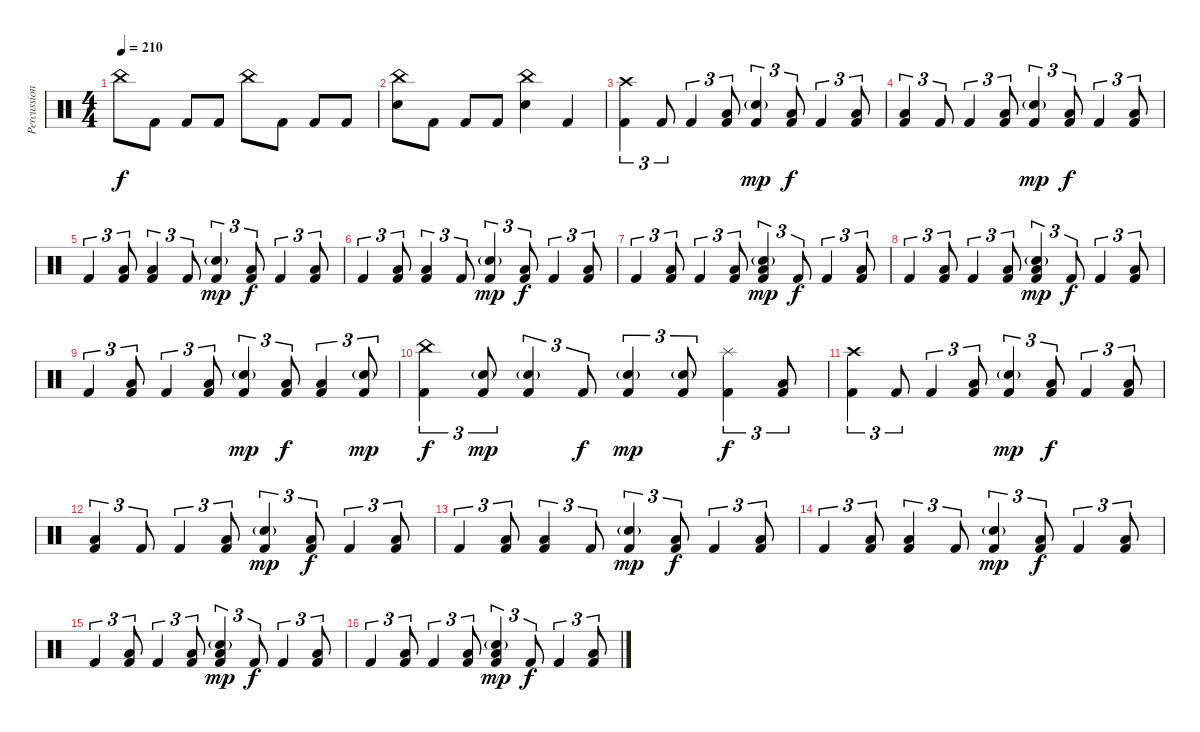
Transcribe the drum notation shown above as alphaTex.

\track ("Percussion" "Percussion") {instrument percussion}
\staff {score}
\articulation defaults
\ts (4 4)
\tempo 210
\clef neutral
\ks c "China (hit)".8{dy f} "Kick (hit) 2".8 "Kick (hit) 2".8 "Kick (hit) 2".8 "China (hit)".8 "Kick (hit) 2".8 "Kick (hit) 2".8 "Kick (hit) 2".8
|
("China (hit)" "Electric Snare (hit)").8 "Kick (hit) 2".8 "Kick (hit) 2".8 "Kick (hit) 2".8 ("China (hit)" "Electric Snare (hit)").4 "Kick (hit) 2".4 |
("Crash high (hit)" "Kick (hit) 2").4{tu (3 2)} "Kick (hit) 2".8{tu (3 2)} "Kick (hit) 2".4{tu (3 2)} ("Low Floor Tom (hit)" "Kick (hit) 2").8{tu (3 2)} ("Electric Snare (hit)"{g} "Kick (hit) 2").4{tu (3 2) dy mp} ("Low Floor Tom (hit)" "Kick (hit) 2").8{tu (3 2) dy f} "Kick (hit) 2".4{tu (3 2)} ("Low Floor Tom (hit)" "Kick (hit) 2").8{tu (3 2)} |
("Low Floor Tom (hit)" "Kick (hit) 2").4{tu (3 2)} "Kick (hit) 2".8{tu (3 2)} "Kick (hit) 2".4{tu (3 2)} ("Low Floor Tom (hit)" "Kick (hit) 2").8{tu (3 2)} ("Electric Snare (hit)"{g} "Kick (hit) 2").4{tu (3 2) dy mp} ("Low Floor Tom (hit)" "Kick (hit) 2").8{tu (3 2) dy f} "Kick (hit) 2".4{tu (3 2)} ("Low Floor Tom (hit)" "Kick (hit) 2").8{tu (3 2)} |
"Kick (hit) 2".4{tu (3 2)} ("Low Floor Tom (hit)" "Kick (hit) 2").8{tu (3 2)} ("Low Floor Tom (hit)" "Kick (hit) 2").4{tu (3 2)} "Kick (hit) 2".8{tu (3 2)} ("Electric Snare (hit)"{g} "Kick (hit) 2").4{tu (3 2) dy mp} ("Low Floor Tom (hit)" "Kick (hit) 2").8{tu (3 2) dy f} "Kick (hit) 2".4{tu (3 2)} ("Low Floor Tom (hit)" "Kick (hit) 2").8{tu (3 2)} |
"Kick (hit) 2".4{tu (3 2)} ("Low Floor Tom (hit)" "Kick (hit) 2").8{tu (3 2)} ("Low Floor Tom (hit)" "Kick (hit) 2").4{tu (3 2)} "Kick (hit) 2".8{tu (3 2)} ("Electric Snare (hit)"{g} "Kick (hit) 2").4{tu (3 2) dy mp} ("Low Floor Tom (hit)" "Kick (hit) 2").8{tu (3 2) dy f} "Kick (hit) 2".4{tu (3 2)} ("Low Floor Tom (hit)" "Kick (hit) 2").8{tu (3 2)} |
"Kick (hit) 2".4{tu (3 2)} ("Low Floor Tom (hit)" "Kick (hit) 2").8{tu (3 2)} "Kick (hit) 2".4{tu (3 2)} ("Low Floor Tom (hit)" "Kick (hit) 2").8{tu (3 2)} ("Electric Snare (hit)"{g} "Low Floor Tom (hit)" "Kick (hit) 2").4{tu (3 2) dy mp} "Kick (hit) 2".8{tu (3 2) dy f} "Kick (hit) 2".4{tu (3 2)} ("Low Floor Tom (hit)" "Kick (hit) 2").8{tu (3 2)} |
"Kick (hit) 2".4{tu (3 2)} ("Low Floor Tom (hit)" "Kick (hit) 2").8{tu (3 2)} "Kick (hit) 2".4{tu (3 2)} ("Low Floor Tom (hit)" "Kick (hit) 2").8{tu (3 2)} ("Electric Snare (hit)"{g} "Low Floor Tom (hit)" "Kick (hit) 2").4{tu (3 2) dy mp} "Kick (hit) 2".8{tu (3 2) dy f} "Kick (hit) 2".4{tu (3 2)} ("Low Floor Tom (hit)" "Kick (hit) 2").8{tu (3 2)} |
"Kick (hit) 2".4{tu (3 2)} ("Low Floor Tom (hit)" "Kick (hit) 2").8{tu (3 2)} "Kick (hit) 2".4{tu (3 2)} ("Low Floor Tom (hit)" "Kick (hit) 2").8{tu (3 2)} ("Electric Snare (hit)"{g} "Kick (hit) 2").4{tu (3 2) dy mp} ("Low Floor Tom (hit)" "Kick (hit) 2").8{tu (3 2) dy f} ("Low Floor Tom (hit)" "Kick (hit) 2").4{tu (3 2)} ("Electric Snare (hit)"{g} "Kick (hit) 2").8{tu (3 2) dy mp} |
("China (hit)" "Kick (hit) 2").4{tu (3 2) dy f} ("Electric Snare (hit)"{g} "Kick (hit) 2").8{tu (3 2) dy mp} ("Electric Snare (hit)"{g} "Kick (hit) 2").4{tu (3 2)} "Kick (hit) 2".8{tu (3 2) dy f} ("Electric Snare (hit)"{g} "Kick (hit) 2").4{tu (3 2) dy mp} ("Electric Snare (hit)"{g} "Kick (hit) 2").8{tu (3 2)} ("Splash (hit)" "Kick (hit) 2").4{tu (3 2) dy f} ("Low Floor Tom (hit)" "Kick (hit) 2").8{tu (3 2)} |
("Crash high (hit)" "Kick (hit) 2").4{tu (3 2)} "Kick (hit) 2".8{tu (3 2)} "Kick (hit) 2".4{tu (3 2)} ("Low Floor Tom (hit)" "Kick (hit) 2").8{tu (3 2)} ("Electric Snare (hit)"{g} "Kick (hit) 2").4{tu (3 2) dy mp} ("Low Floor Tom (hit)" "Kick (hit) 2").8{tu (3 2) dy f} "Kick (hit) 2".4{tu (3 2)} ("Low Floor Tom (hit)" "Kick (hit) 2").8{tu (3 2)} |
("Low Floor Tom (hit)" "Kick (hit) 2").4{tu (3 2)} "Kick (hit) 2".8{tu (3 2)} "Kick (hit) 2".4{tu (3 2)} ("Low Floor Tom (hit)" "Kick (hit) 2").8{tu (3 2)} ("Electric Snare (hit)"{g} "Kick (hit) 2").4{tu (3 2) dy mp} ("Low Floor Tom (hit)" "Kick (hit) 2").8{tu (3 2) dy f} "Kick (hit) 2".4{tu (3 2)} ("Low Floor Tom (hit)" "Kick (hit) 2").8{tu (3 2)} |
"Kick (hit) 2".4{tu (3 2)} ("Low Floor Tom (hit)" "Kick (hit) 2").8{tu (3 2)} ("Low Floor Tom (hit)" "Kick (hit) 2").4{tu (3 2)} "Kick (hit) 2".8{tu (3 2)} ("Electric Snare (hit)"{g} "Kick (hit) 2").4{tu (3 2) dy mp} ("Low Floor Tom (hit)" "Kick (hit) 2").8{tu (3 2) dy f} "Kick (hit) 2".4{tu (3 2)} ("Low Floor Tom (hit)" "Kick (hit) 2").8{tu (3 2)} |
"Kick (hit) 2".4{tu (3 2)} ("Low Floor Tom (hit)" "Kick (hit) 2").8{tu (3 2)} ("Low Floor Tom (hit)" "Kick (hit) 2").4{tu (3 2)} "Kick (hit) 2".8{tu (3 2)} ("Electric Snare (hit)"{g} "Kick (hit) 2").4{tu (3 2) dy mp} ("Low Floor Tom (hit)" "Kick (hit) 2").8{tu (3 2) dy f} "Kick (hit) 2".4{tu (3 2)} ("Low Floor Tom (hit)" "Kick (hit) 2").8{tu (3 2)} |
"Kick (hit) 2".4{tu (3 2)} ("Low Floor Tom (hit)" "Kick (hit) 2").8{tu (3 2)} "Kick (hit) 2".4{tu (3 2)} ("Low Floor Tom (hit)" "Kick (hit) 2").8{tu (3 2)} ("Electric Snare (hit)"{g} "Low Floor Tom (hit)" "Kick (hit) 2").4{tu (3 2) dy mp} "Kick (hit) 2".8{tu (3 2) dy f} "Kick (hit) 2".4{tu (3 2)} ("Low Floor Tom (hit)" "Kick (hit) 2").8{tu (3 2)} |
"Kick (hit) 2".4{tu (3 2)} ("Low Floor Tom (hit)" "Kick (hit) 2").8{tu (3 2)} "Kick (hit) 2".4{tu (3 2)} ("Low Floor Tom (hit)" "Kick (hit) 2").8{tu (3 2)} ("Electric Snare (hit)"{g} "Low Floor Tom (hit)" "Kick (hit) 2").4{tu (3 2) dy mp} "Kick (hit) 2".8{tu (3 2) dy f} "Kick (hit) 2".4{tu (3 2)} ("Low Floor Tom (hit)" "Kick (hit) 2").8{tu (3 2)}
